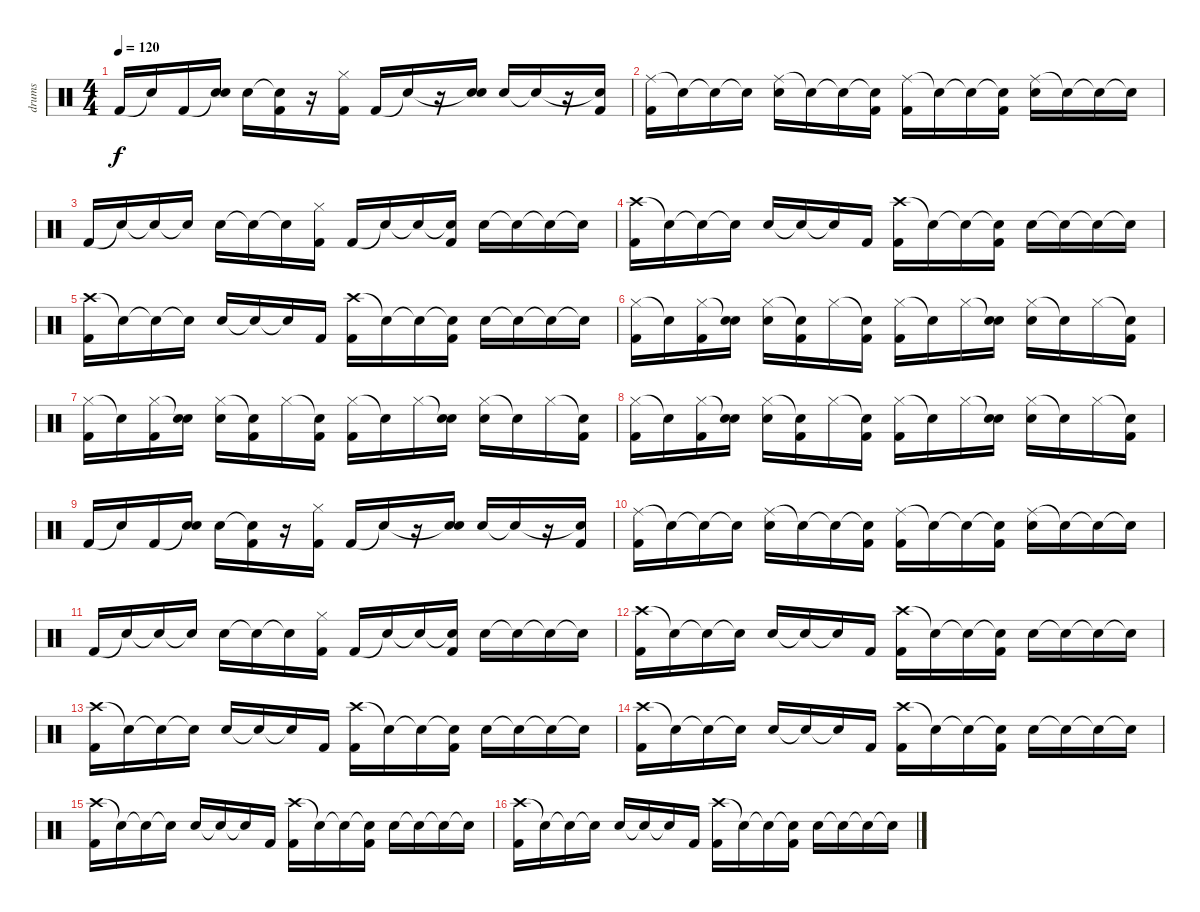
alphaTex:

\track ("drums" "drums") {instrument percussion}
\staff {score}
\articulation defaults
\ts (4 4)
\tempo 120
\clef neutral
\ks c "Kick (hit) 2".16{dy f} "Snare (hit)"{t}.16 "Kick (hit) 2".16
("Snare (hit)"{t} "Snare (hit) 2").16 "Snare (hit) 2".16 ("Snare (hit)"{t} "Kick (hit) 2").16 r.16 ("Hi-Hat (closed)" "Kick (hit) 2").16 "Kick (hit) 2".16 "Snare (hit)"{t}.16 r.16 ("Snare (hit)"{t} "Snare (hit) 2").16 "Snare (hit) 2".16 "Snare (hit)"{t}.16 r.16 ("Snare (hit)"{t} "Kick (hit) 2").16 |
("Ride (middle)" "Kick (hit) 2").16 "Snare (hit)"{t}.16 "Snare (hit)"{t}.16 "Snare (hit)"{t}.16 ("Ride (middle)" "Snare (hit) 2").16 "Snare (hit)"{t}.16 "Snare (hit)"{t}.16 ("Snare (hit)"{t} "Kick (hit) 2").16 ("Ride (middle)" "Kick (hit) 2").16 "Snare (hit)"{t}.16 "Snare (hit)"{t}.16 ("Snare (hit)"{t} "Kick (hit) 2").16 ("Ride (middle)" "Snare (hit) 2").16 "Snare (hit)"{t}.16 "Snare (hit)"{t}.16 "Snare (hit)"{t}.16 |
"Kick (hit) 2".16 "Snare (hit)"{t}.16 "Snare (hit)"{t}.16 "Snare (hit)"{t}.16 "Snare (hit) 2".16 "Snare (hit)"{t}.16 "Snare (hit)"{t}.16 ("Hi-Hat (closed)" "Kick (hit) 2").16 "Kick (hit) 2".16 "Snare (hit)"{t}.16 "Snare (hit)"{t}.16 ("Snare (hit)"{t} "Kick (hit) 2").16 "Snare (hit) 2".16 "Snare (hit)"{t}.16 "Snare (hit)"{t}.16 "Snare (hit)"{t}.16 |
("Crash high (hit)" "Kick (hit) 2").16 "Snare (hit)"{t}.16 "Snare (hit)"{t}.16 "Snare (hit)"{t}.16 "Snare (hit) 2".16 "Snare (hit)"{t}.16 "Snare (hit)"{t}.16 "Kick (hit) 2".16 ("Crash high (hit)" "Kick (hit) 2").16 "Snare (hit)"{t}.16 "Snare (hit)"{t}.16 ("Snare (hit)"{t} "Kick (hit) 2").16 "Snare (hit) 2".16 "Snare (hit)"{t}.16 "Snare (hit)"{t}.16 "Snare (hit)"{t}.16 |
("Crash high (hit)" "Kick (hit) 2").16 "Snare (hit)"{t}.16 "Snare (hit)"{t}.16 "Snare (hit)"{t}.16 "Snare (hit) 2".16 "Snare (hit)"{t}.16 "Snare (hit)"{t}.16 "Kick (hit) 2".16 ("Crash high (hit)" "Kick (hit) 2").16 "Snare (hit)"{t}.16 "Snare (hit)"{t}.16 ("Snare (hit)"{t} "Kick (hit) 2").16 "Snare (hit) 2".16 "Snare (hit)"{t}.16 "Snare (hit)"{t}.16 "Snare (hit)"{t}.16 |
("Hi-Hat (closed)" "Kick (hit) 2").16 "Snare (hit)"{t}.16 ("Hi-Hat (closed)" "Kick (hit) 2").16 ("Snare (hit)"{t} "Snare (hit) 2").16 ("Hi-Hat (closed)" "Snare (hit) 2").16 ("Snare (hit)"{t} "Kick (hit) 2").16 "Hi-Hat (closed)".16 ("Snare (hit)"{t} "Kick (hit) 2").16 ("Hi-Hat (closed)" "Kick (hit) 2").16 "Snare (hit)"{t}.16 "Hi-Hat (closed)".16 ("Snare (hit)"{t} "Snare (hit) 2").16 ("Hi-Hat (closed)" "Snare (hit) 2").16 "Snare (hit)"{t}.16 "Hi-Hat (closed)".16 ("Snare (hit)"{t} "Kick (hit) 2").16 |
("Hi-Hat (closed)" "Kick (hit) 2").16 "Snare (hit)"{t}.16 ("Hi-Hat (closed)" "Kick (hit) 2").16 ("Snare (hit)"{t} "Snare (hit) 2").16 ("Hi-Hat (closed)" "Snare (hit) 2").16 ("Snare (hit)"{t} "Kick (hit) 2").16 "Hi-Hat (closed)".16 ("Snare (hit)"{t} "Kick (hit) 2").16 ("Hi-Hat (closed)" "Kick (hit) 2").16 "Snare (hit)"{t}.16 "Hi-Hat (closed)".16 ("Snare (hit)"{t} "Snare (hit) 2").16 ("Hi-Hat (closed)" "Snare (hit) 2").16 "Snare (hit)"{t}.16 "Hi-Hat (closed)".16 ("Snare (hit)"{t} "Kick (hit) 2").16 |
("Hi-Hat (closed)" "Kick (hit) 2").16 "Snare (hit)"{t}.16 ("Hi-Hat (closed)" "Kick (hit) 2").16 ("Snare (hit)"{t} "Snare (hit) 2").16 ("Hi-Hat (closed)" "Snare (hit) 2").16 ("Snare (hit)"{t} "Kick (hit) 2").16 "Hi-Hat (closed)".16 ("Snare (hit)"{t} "Kick (hit) 2").16 ("Hi-Hat (closed)" "Kick (hit) 2").16 "Snare (hit)"{t}.16 "Hi-Hat (closed)".16 ("Snare (hit)"{t} "Snare (hit) 2").16 ("Hi-Hat (closed)" "Snare (hit) 2").16 "Snare (hit)"{t}.16 "Hi-Hat (closed)".16 ("Snare (hit)"{t} "Kick (hit) 2").16 |
"Kick (hit) 2".16 "Snare (hit)"{t}.16 "Kick (hit) 2".16 ("Snare (hit)"{t} "Snare (hit) 2").16 "Snare (hit) 2".16 ("Snare (hit)"{t} "Kick (hit) 2").16 r.16 ("Hi-Hat (closed)" "Kick (hit) 2").16 "Kick (hit) 2".16 "Snare (hit)"{t}.16 r.16 ("Snare (hit)"{t} "Snare (hit) 2").16 "Snare (hit) 2".16 "Snare (hit)"{t}.16 r.16 ("Snare (hit)"{t} "Kick (hit) 2").16 |
("Ride (middle)" "Kick (hit) 2").16 "Snare (hit)"{t}.16 "Snare (hit)"{t}.16 "Snare (hit)"{t}.16 ("Ride (middle)" "Snare (hit) 2").16 "Snare (hit)"{t}.16 "Snare (hit)"{t}.16 ("Snare (hit)"{t} "Kick (hit) 2").16 ("Ride (middle)" "Kick (hit) 2").16 "Snare (hit)"{t}.16 "Snare (hit)"{t}.16 ("Snare (hit)"{t} "Kick (hit) 2").16 ("Ride (middle)" "Snare (hit) 2").16 "Snare (hit)"{t}.16 "Snare (hit)"{t}.16 "Snare (hit)"{t}.16 |
"Kick (hit) 2".16 "Snare (hit)"{t}.16 "Snare (hit)"{t}.16 "Snare (hit)"{t}.16 "Snare (hit) 2".16 "Snare (hit)"{t}.16 "Snare (hit)"{t}.16 ("Hi-Hat (closed)" "Kick (hit) 2").16 "Kick (hit) 2".16 "Snare (hit)"{t}.16 "Snare (hit)"{t}.16 ("Snare (hit)"{t} "Kick (hit) 2").16 "Snare (hit) 2".16 "Snare (hit)"{t}.16 "Snare (hit)"{t}.16 "Snare (hit)"{t}.16 |
("Crash high (hit)" "Kick (hit) 2").16 "Snare (hit)"{t}.16 "Snare (hit)"{t}.16 "Snare (hit)"{t}.16 "Snare (hit) 2".16 "Snare (hit)"{t}.16 "Snare (hit)"{t}.16 "Kick (hit) 2".16 ("Crash high (hit)" "Kick (hit) 2").16 "Snare (hit)"{t}.16 "Snare (hit)"{t}.16 ("Snare (hit)"{t} "Kick (hit) 2").16 "Snare (hit) 2".16 "Snare (hit)"{t}.16 "Snare (hit)"{t}.16 "Snare (hit)"{t}.16 |
("Crash high (hit)" "Kick (hit) 2").16 "Snare (hit)"{t}.16 "Snare (hit)"{t}.16 "Snare (hit)"{t}.16 "Snare (hit) 2".16 "Snare (hit)"{t}.16 "Snare (hit)"{t}.16 "Kick (hit) 2".16 ("Crash high (hit)" "Kick (hit) 2").16 "Snare (hit)"{t}.16 "Snare (hit)"{t}.16 ("Snare (hit)"{t} "Kick (hit) 2").16 "Snare (hit) 2".16 "Snare (hit)"{t}.16 "Snare (hit)"{t}.16 "Snare (hit)"{t}.16 |
("Crash high (hit)" "Kick (hit) 2").16 "Snare (hit)"{t}.16 "Snare (hit)"{t}.16 "Snare (hit)"{t}.16 "Snare (hit) 2".16 "Snare (hit)"{t}.16 "Snare (hit)"{t}.16 "Kick (hit) 2".16 ("Crash high (hit)" "Kick (hit) 2").16 "Snare (hit)"{t}.16 "Snare (hit)"{t}.16 ("Snare (hit)"{t} "Kick (hit) 2").16 "Snare (hit) 2".16 "Snare (hit)"{t}.16 "Snare (hit)"{t}.16 "Snare (hit)"{t}.16 |
("Crash high (hit)" "Kick (hit) 2").16 "Snare (hit)"{t}.16 "Snare (hit)"{t}.16 "Snare (hit)"{t}.16 "Snare (hit) 2".16 "Snare (hit)"{t}.16 "Snare (hit)"{t}.16 "Kick (hit) 2".16 ("Crash high (hit)" "Kick (hit) 2").16 "Snare (hit)"{t}.16 "Snare (hit)"{t}.16 ("Snare (hit)"{t} "Kick (hit) 2").16 "Snare (hit) 2".16 "Snare (hit)"{t}.16 "Snare (hit)"{t}.16 "Snare (hit)"{t}.16 |
("Crash high (hit)" "Kick (hit) 2").16 "Snare (hit)"{t}.16 "Snare (hit)"{t}.16 "Snare (hit)"{t}.16 "Snare (hit) 2".16 "Snare (hit)"{t}.16 "Snare (hit)"{t}.16 "Kick (hit) 2".16 ("Crash high (hit)" "Kick (hit) 2").16 "Snare (hit)"{t}.16 "Snare (hit)"{t}.16 ("Snare (hit)"{t} "Kick (hit) 2").16 "Snare (hit) 2".16 "Snare (hit)"{t}.16 "Snare (hit)"{t}.16 "Snare (hit)"{t}.16
